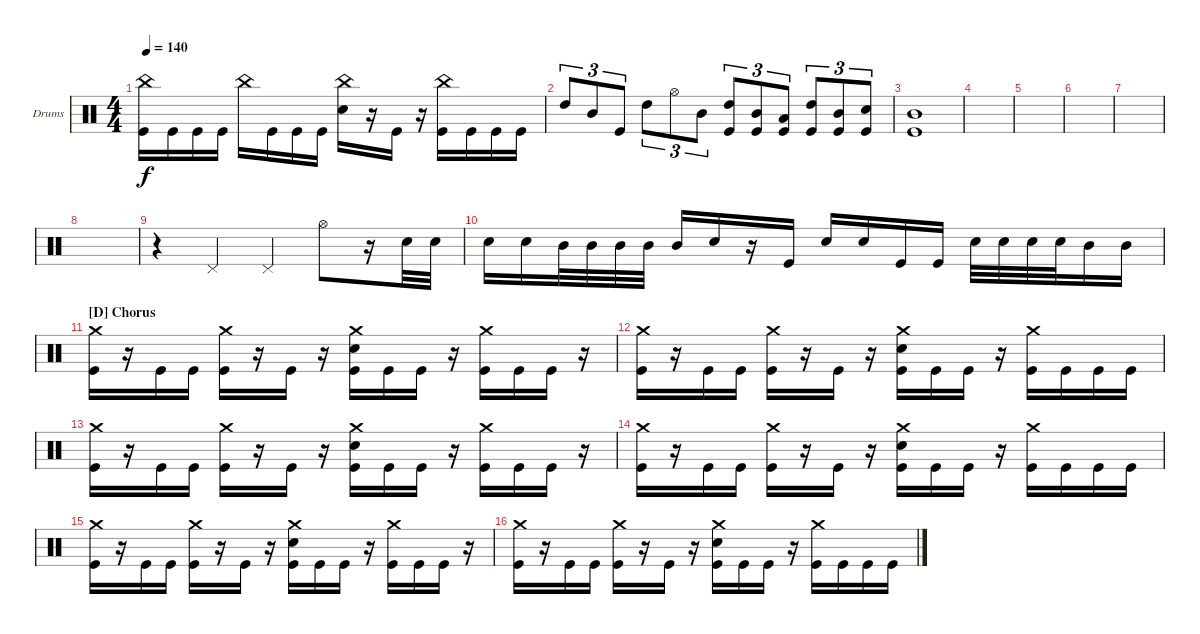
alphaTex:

\bracketExtendMode groupsimilarinstruments
\firstSystemTrackNameOrientation horizontal
\otherSystemsTrackNameOrientation horizontal
\track ("Drumkit" "Drums") {instrument percussion}
\staff {score}
\articulation defaults
\ts (4 4)
\tempo 140
\clef neutral
\ks c
("Kick (hit)" "China (hit)").16{dy f} "Kick (hit)".16 "Kick (hit)".16 "Kick (hit)".16 "China (hit)".16 "Kick (hit)".16 "Kick (hit)".16 "Kick (hit)".16 ("Snare (hit) 2" "China (hit)").16 r.16 "Kick (hit)".16 r.16 ("Kick (hit)" "China (hit)").16 "Kick (hit)".16 "Kick (hit)".16 "Kick (hit)".16 |
"High Tom (hit)".8{tu (3 2)} "Mid Tom (hit)".8{tu (3 2)} "Kick (hit)".8{tu (3 2)} "High Tom (hit)".8{tu (3 2)} "Hi-Hat (open)".8{tu (3 2)} "Mid Tom (hit)".8{tu (3 2)} ("Kick (hit)" "High Tom (hit)").8{tu (3 2)} ("Kick (hit)" "Mid Tom (hit)").8{tu (3 2)} ("Kick (hit)" "Low Tom (hit)").8{tu (3 2)} ("Kick (hit)" "High Tom (hit)").8{tu (3 2)} ("Kick (hit)" "Mid Tom (hit)").8{tu (3 2)} ("Kick (hit)" "Snare (hit) 2").8{tu (3 2)} |
("Kick (hit)" "Mid Tom (hit)").1 |
|
|
|
|
|
r.4 "Pedal Hi-Hat (hit)".4 "Pedal Hi-Hat (hit)".4 "Hi-Hat (open)".8 r.16 "Snare (hit) 2".32 "Snare (hit) 2".32 |
"Snare (hit) 2".16 "Snare (hit) 2".16 "Mid Tom (hit)".32 "Mid Tom (hit)".32 "Mid Tom (hit)".32 "Mid Tom (hit)".32 "Mid Tom (hit)".16 "Snare (hit) 2".16 r.16 "Kick (hit)".16 "Snare (hit) 2".16 "Snare (hit) 2".16 "Kick (hit)".16 "Kick (hit)".16 "Snare (hit) 2".32 "Snare (hit) 2".32 "Snare (hit) 2".32 "Snare (hit) 2".32 "Mid Tom (hit)".16 "Mid Tom (hit)".16 |
\section ("D" "Chorus")
("Kick (hit)" "Crash medium (hit)").16 r.16 "Kick (hit)".16 "Kick (hit)".16 ("Kick (hit)" "Crash medium (hit)").16 r.16 "Kick (hit)".16 r.16 ("Kick (hit)" "Snare (hit) 2" "Crash medium (hit)").16 "Kick (hit)".16 "Kick (hit)".16 r.16 ("Kick (hit)" "Crash medium (hit)").16 "Kick (hit)".16 "Kick (hit)".16 r.16 |
("Kick (hit)" "Crash medium (hit)").16 r.16 "Kick (hit)".16 "Kick (hit)".16 ("Kick (hit)" "Crash medium (hit)").16 r.16 "Kick (hit)".16 r.16 ("Kick (hit)" "Snare (hit) 2" "Crash medium (hit)").16 "Kick (hit)".16 "Kick (hit)".16 r.16 ("Kick (hit)" "Crash medium (hit)").16 "Kick (hit)".16 "Kick (hit)".16 "Kick (hit)".16 |
("Kick (hit)" "Crash medium (hit)").16 r.16 "Kick (hit)".16 "Kick (hit)".16 ("Kick (hit)" "Crash medium (hit)").16 r.16 "Kick (hit)".16 r.16 ("Kick (hit)" "Snare (hit) 2" "Crash medium (hit)").16 "Kick (hit)".16 "Kick (hit)".16 r.16 ("Kick (hit)" "Crash medium (hit)").16 "Kick (hit)".16 "Kick (hit)".16 r.16 |
("Kick (hit)" "Crash medium (hit)").16 r.16 "Kick (hit)".16 "Kick (hit)".16 ("Kick (hit)" "Crash medium (hit)").16 r.16 "Kick (hit)".16 r.16 ("Kick (hit)" "Snare (hit) 2" "Crash medium (hit)").16 "Kick (hit)".16 "Kick (hit)".16 r.16 ("Kick (hit)" "Crash medium (hit)").16 "Kick (hit)".16 "Kick (hit)".16 "Kick (hit)".16 |
("Kick (hit)" "Crash medium (hit)").16 r.16 "Kick (hit)".16 "Kick (hit)".16 ("Kick (hit)" "Crash medium (hit)").16 r.16 "Kick (hit)".16 r.16 ("Kick (hit)" "Snare (hit) 2" "Crash medium (hit)").16 "Kick (hit)".16 "Kick (hit)".16 r.16 ("Kick (hit)" "Crash medium (hit)").16 "Kick (hit)".16 "Kick (hit)".16 r.16 |
("Kick (hit)" "Crash medium (hit)").16 r.16 "Kick (hit)".16 "Kick (hit)".16 ("Kick (hit)" "Crash medium (hit)").16 r.16 "Kick (hit)".16 r.16 ("Kick (hit)" "Snare (hit) 2" "Crash medium (hit)").16 "Kick (hit)".16 "Kick (hit)".16 r.16 ("Kick (hit)" "Crash medium (hit)").16 "Kick (hit)".16 "Kick (hit)".16 "Kick (hit)".16
